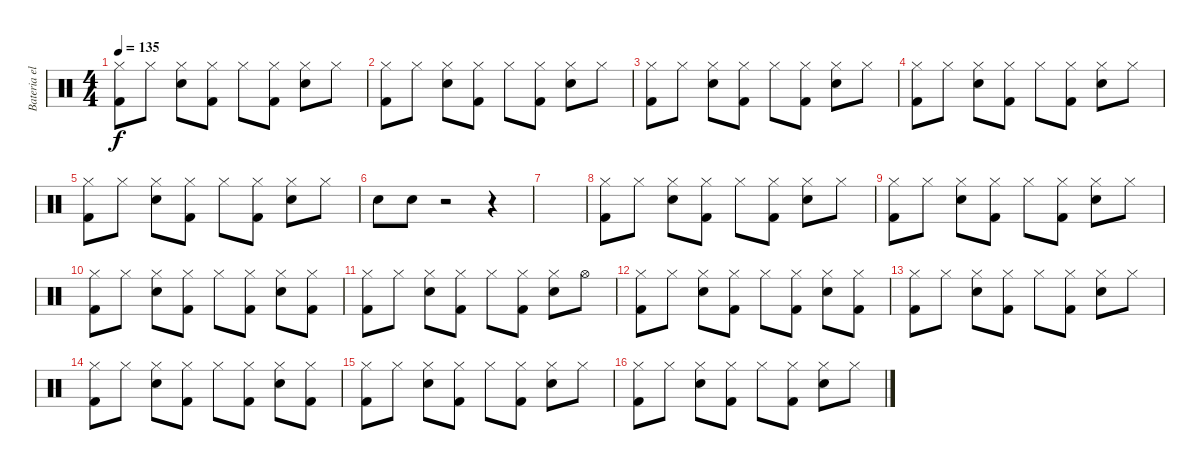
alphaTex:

\track ("Bateria electrica" "Bateria el") {instrument percussion}
\staff {score}
\articulation defaults
\ts (4 4)
\tempo 135
\clef neutral
\ks c
("Hi-Hat (closed)" "Kick (hit) 2").8{dy f} "Hi-Hat (closed)".8 ("Hi-Hat (closed)" "Snare (hit) 2").8 ("Hi-Hat (closed)" "Kick (hit) 2").8 "Hi-Hat (closed)".8 ("Hi-Hat (closed)" "Kick (hit) 2").8 ("Hi-Hat (closed)" "Snare (hit) 2").8 "Hi-Hat (closed)".8 |
("Hi-Hat (closed)" "Kick (hit) 2").8 "Hi-Hat (closed)".8 ("Hi-Hat (closed)" "Snare (hit) 2").8 ("Hi-Hat (closed)" "Kick (hit) 2").8 "Hi-Hat (closed)".8 ("Hi-Hat (closed)" "Kick (hit) 2").8 ("Hi-Hat (closed)" "Snare (hit) 2").8 "Hi-Hat (closed)".8 |
("Hi-Hat (closed)" "Kick (hit) 2").8 "Hi-Hat (closed)".8 ("Hi-Hat (closed)" "Snare (hit) 2").8 ("Hi-Hat (closed)" "Kick (hit) 2").8 "Hi-Hat (closed)".8 ("Hi-Hat (closed)" "Kick (hit) 2").8 ("Hi-Hat (closed)" "Snare (hit) 2").8 "Hi-Hat (closed)".8 |
("Hi-Hat (closed)" "Kick (hit) 2").8 "Hi-Hat (closed)".8 ("Hi-Hat (closed)" "Snare (hit) 2").8 ("Hi-Hat (closed)" "Kick (hit) 2").8 "Hi-Hat (closed)".8 ("Hi-Hat (closed)" "Kick (hit) 2").8 ("Hi-Hat (closed)" "Snare (hit) 2").8 "Hi-Hat (closed)".8 |
("Hi-Hat (closed)" "Kick (hit) 2").8 "Hi-Hat (closed)".8 ("Hi-Hat (closed)" "Snare (hit) 2").8 ("Hi-Hat (closed)" "Kick (hit) 2").8 "Hi-Hat (closed)".8 ("Hi-Hat (closed)" "Kick (hit) 2").8 ("Hi-Hat (closed)" "Snare (hit) 2").8 "Hi-Hat (closed)".8 |
"Snare (hit) 2".8 "Snare (hit) 2".8 r.2 r.4 |
|
("Hi-Hat (closed)" "Kick (hit) 2").8 "Hi-Hat (closed)".8 ("Hi-Hat (closed)" "Snare (hit) 2").8 ("Hi-Hat (closed)" "Kick (hit) 2").8 "Hi-Hat (closed)".8 ("Hi-Hat (closed)" "Kick (hit) 2").8 ("Hi-Hat (closed)" "Snare (hit) 2").8 "Hi-Hat (closed)".8 |
("Hi-Hat (closed)" "Kick (hit) 2").8 "Hi-Hat (closed)".8 ("Hi-Hat (closed)" "Snare (hit) 2").8 ("Hi-Hat (closed)" "Kick (hit) 2").8 "Hi-Hat (closed)".8 ("Hi-Hat (closed)" "Kick (hit) 2").8 ("Hi-Hat (closed)" "Snare (hit) 2").8 "Hi-Hat (closed)".8 |
("Hi-Hat (closed)" "Kick (hit) 2").8 "Hi-Hat (closed)".8 ("Hi-Hat (closed)" "Snare (hit) 2").8 ("Hi-Hat (closed)" "Kick (hit) 2").8 "Hi-Hat (closed)".8 ("Hi-Hat (closed)" "Kick (hit) 2").8 ("Hi-Hat (closed)" "Snare (hit) 2").8 ("Hi-Hat (closed)" "Kick (hit) 2").8 |
("Hi-Hat (closed)" "Kick (hit) 2").8 "Hi-Hat (closed)".8 ("Hi-Hat (closed)" "Snare (hit) 2").8 ("Hi-Hat (closed)" "Kick (hit) 2").8 "Hi-Hat (closed)".8 ("Hi-Hat (closed)" "Kick (hit) 2").8 ("Hi-Hat (closed)" "Snare (hit) 2").8 "Hi-Hat (open)".8 |
("Hi-Hat (closed)" "Kick (hit) 2").8 "Hi-Hat (closed)".8 ("Hi-Hat (closed)" "Snare (hit) 2").8 ("Hi-Hat (closed)" "Kick (hit) 2").8 "Hi-Hat (closed)".8 ("Hi-Hat (closed)" "Kick (hit) 2").8 ("Hi-Hat (closed)" "Snare (hit) 2").8 ("Hi-Hat (closed)" "Kick (hit) 2").8 |
("Hi-Hat (closed)" "Kick (hit) 2").8 "Hi-Hat (closed)".8 ("Hi-Hat (closed)" "Snare (hit) 2").8 ("Hi-Hat (closed)" "Kick (hit) 2").8 "Hi-Hat (closed)".8 ("Hi-Hat (closed)" "Kick (hit) 2").8 ("Hi-Hat (closed)" "Snare (hit) 2").8 "Hi-Hat (closed)".8 |
("Hi-Hat (closed)" "Kick (hit) 2").8 "Hi-Hat (closed)".8 ("Hi-Hat (closed)" "Snare (hit) 2").8 ("Hi-Hat (closed)" "Kick (hit) 2").8 "Hi-Hat (closed)".8 ("Hi-Hat (closed)" "Kick (hit) 2").8 ("Hi-Hat (closed)" "Snare (hit) 2").8 ("Hi-Hat (closed)" "Kick (hit) 2").8 |
("Hi-Hat (closed)" "Kick (hit) 2").8 "Hi-Hat (closed)".8 ("Hi-Hat (closed)" "Snare (hit) 2").8 ("Hi-Hat (closed)" "Kick (hit) 2").8 "Hi-Hat (closed)".8 ("Hi-Hat (closed)" "Kick (hit) 2").8 ("Hi-Hat (closed)" "Snare (hit) 2").8 "Hi-Hat (closed)".8 |
("Hi-Hat (closed)" "Kick (hit) 2").8 "Hi-Hat (closed)".8 ("Hi-Hat (closed)" "Snare (hit) 2").8 ("Hi-Hat (closed)" "Kick (hit) 2").8 "Hi-Hat (closed)".8 ("Hi-Hat (closed)" "Kick (hit) 2").8 ("Hi-Hat (closed)" "Snare (hit) 2").8 "Hi-Hat (closed)".8
